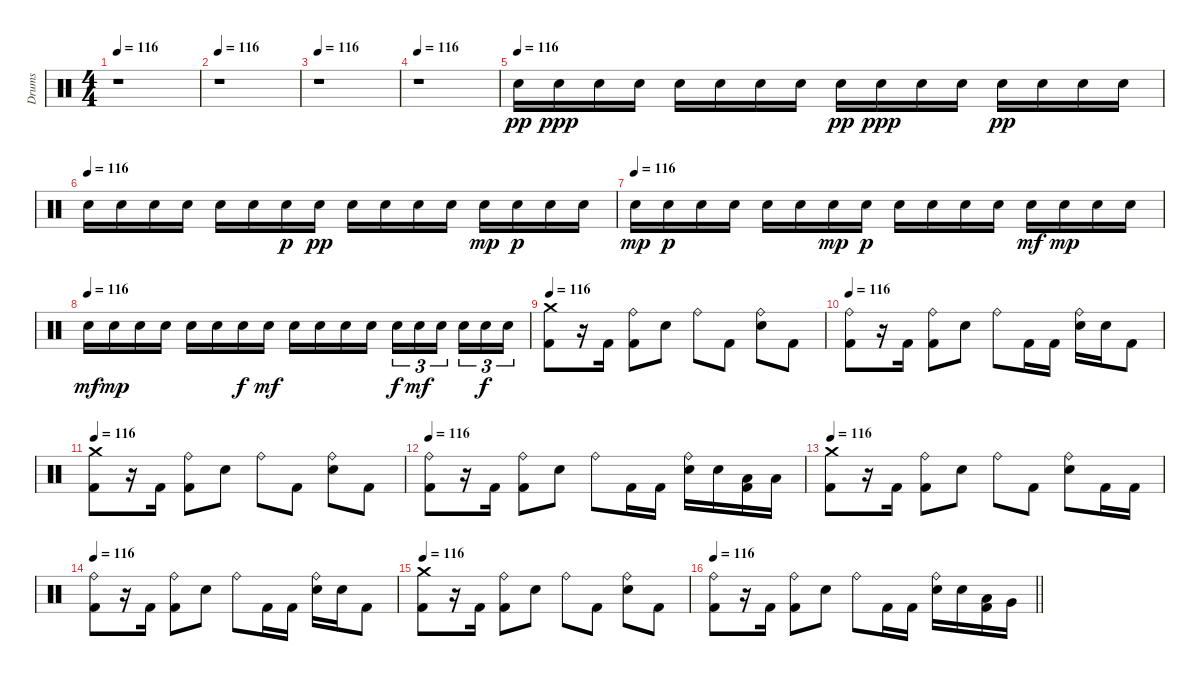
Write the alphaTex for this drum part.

\track ("Drums" "Drums") {instrument percussion}
\staff {score}
\articulation defaults
\ts (4 4)
\tempo 116
\clef neutral
\ks c
r.1{dy f} |
\tempo 116
r.1 |
\tempo 116
r.1 |
\tempo 116
r.1 |
\tempo (116)
"Electric Snare (hit)".16{dy pp} "Electric Snare (hit)".16{dy ppp} "Electric Snare (hit)".16 "Electric Snare (hit)".16 "Electric Snare (hit)".16 "Electric Snare (hit)".16 "Electric Snare (hit)".16 "Electric Snare (hit)".16 "Electric Snare (hit)".16{dy pp} "Electric Snare (hit)".16{dy ppp} "Electric Snare (hit)".16 "Electric Snare (hit)".16 "Electric Snare (hit)".16{dy pp} "Electric Snare (hit)".16 "Electric Snare (hit)".16 "Electric Snare (hit)".16 |
\tempo (116)
"Electric Snare (hit)".16 "Electric Snare (hit)".16 "Electric Snare (hit)".16 "Electric Snare (hit)".16 "Electric Snare (hit)".16 "Electric Snare (hit)".16 "Electric Snare (hit)".16{dy p} "Electric Snare (hit)".16{dy pp} "Electric Snare (hit)".16 "Electric Snare (hit)".16 "Electric Snare (hit)".16 "Electric Snare (hit)".16 "Electric Snare (hit)".16{dy mp} "Electric Snare (hit)".16{dy p} "Electric Snare (hit)".16 "Electric Snare (hit)".16 |
\tempo (116)
"Electric Snare (hit)".16{dy mp} "Electric Snare (hit)".16{dy p} "Electric Snare (hit)".16 "Electric Snare (hit)".16 "Electric Snare (hit)".16 "Electric Snare (hit)".16 "Electric Snare (hit)".16{dy mp} "Electric Snare (hit)".16{dy p} "Electric Snare (hit)".16 "Electric Snare (hit)".16 "Electric Snare (hit)".16 "Electric Snare (hit)".16 "Electric Snare (hit)".16{dy mf} "Electric Snare (hit)".16{dy mp} "Electric Snare (hit)".16 "Electric Snare (hit)".16 |
\tempo (116)
"Electric Snare (hit)".16{dy mf} "Electric Snare (hit)".16{dy mp} "Electric Snare (hit)".16 "Electric Snare (hit)".16 "Electric Snare (hit)".16 "Electric Snare (hit)".16 "Electric Snare (hit)".16{dy f} "Electric Snare (hit)".16{dy mf} "Electric Snare (hit)".16 "Electric Snare (hit)".16 "Electric Snare (hit)".16 "Electric Snare (hit)".16 "Electric Snare (hit)".16{tu (3 2) dy f} "Electric Snare (hit)".16{tu (3 2) dy mf} "Electric Snare (hit)".16{tu (3 2)} "Electric Snare (hit)".16{tu (3 2)} "Electric Snare (hit)".16{tu (3 2) dy f} "Electric Snare (hit)".16{tu (3 2)} |
\tempo 116
("Crash medium (hit)" "Kick (hit) 2").8 r.16 "Kick (hit) 2".16 ("Ride (bell)" "Kick (hit) 2").8 "Snare (hit) 2".8 "Ride (bell)".8 "Kick (hit) 2".8 ("Ride (bell)" "Snare (hit) 2").8 "Kick (hit) 2".8 |
\tempo 116
("Ride (bell)" "Kick (hit) 2").8 r.16 "Kick (hit) 2".16 ("Ride (bell)" "Kick (hit) 2").8 "Snare (hit) 2".8 "Ride (bell)".8 "Kick (hit) 2".16 "Kick (hit) 2".16 ("Ride (bell)" "Snare (hit) 2").16 "Snare (hit) 2".16 "Kick (hit) 2".8 |
\tempo 116
("Crash medium (hit)" "Kick (hit) 2").8 r.16 "Kick (hit) 2".16 ("Ride (bell)" "Kick (hit) 2").8 "Snare (hit) 2".8 "Ride (bell)".8 "Kick (hit) 2".8 ("Ride (bell)" "Snare (hit) 2").8 "Kick (hit) 2".8 |
\tempo 116
("Ride (bell)" "Kick (hit) 2").8 r.16 "Kick (hit) 2".16 ("Ride (bell)" "Kick (hit) 2").8 "Snare (hit) 2".8 "Ride (bell)".8 "Kick (hit) 2".16 "Kick (hit) 2".16 ("Ride (bell)" "Snare (hit) 2").16 "Snare (hit) 2".16 ("Low Tom (hit)" "Kick (hit) 2").16 "Low Tom (hit)".16 |
\tempo 116
("Crash medium (hit)" "Kick (hit) 2").8 r.16 "Kick (hit) 2".16 ("Ride (bell)" "Kick (hit) 2").8 "Snare (hit) 2".8 "Ride (bell)".8 "Kick (hit) 2".8 ("Ride (bell)" "Snare (hit) 2").8 "Kick (hit) 2".16 "Kick (hit) 2".16 |
\tempo 116
("Ride (bell)" "Kick (hit) 2").8 r.16 "Kick (hit) 2".16 ("Ride (bell)" "Kick (hit) 2").8 "Snare (hit) 2".8 "Ride (bell)".8 "Kick (hit) 2".16 "Kick (hit) 2".16 ("Ride (bell)" "Snare (hit) 2").16 "Snare (hit) 2".16 "Kick (hit) 2".8 |
\tempo 116
("Crash medium (hit)" "Kick (hit) 2").8 r.16 "Kick (hit) 2".16 ("Ride (bell)" "Kick (hit) 2").8 "Snare (hit) 2".8 "Ride (bell)".8 "Kick (hit) 2".8 ("Ride (bell)" "Snare (hit) 2").8 "Kick (hit) 2".8 |
\tempo 116
\barLineRight lightlight
("Ride (bell)" "Kick (hit) 2").8 r.16 "Kick (hit) 2".16 ("Ride (bell)" "Kick (hit) 2").8 "Snare (hit) 2".8 "Ride (bell)".8 "Kick (hit) 2".16 "Kick (hit) 2".16 ("Ride (bell)" "Snare (hit) 2").16 "Snare (hit) 2".16 ("Low Tom (hit)" "Kick (hit) 2").16 "Very Low Tom (hit)".16
